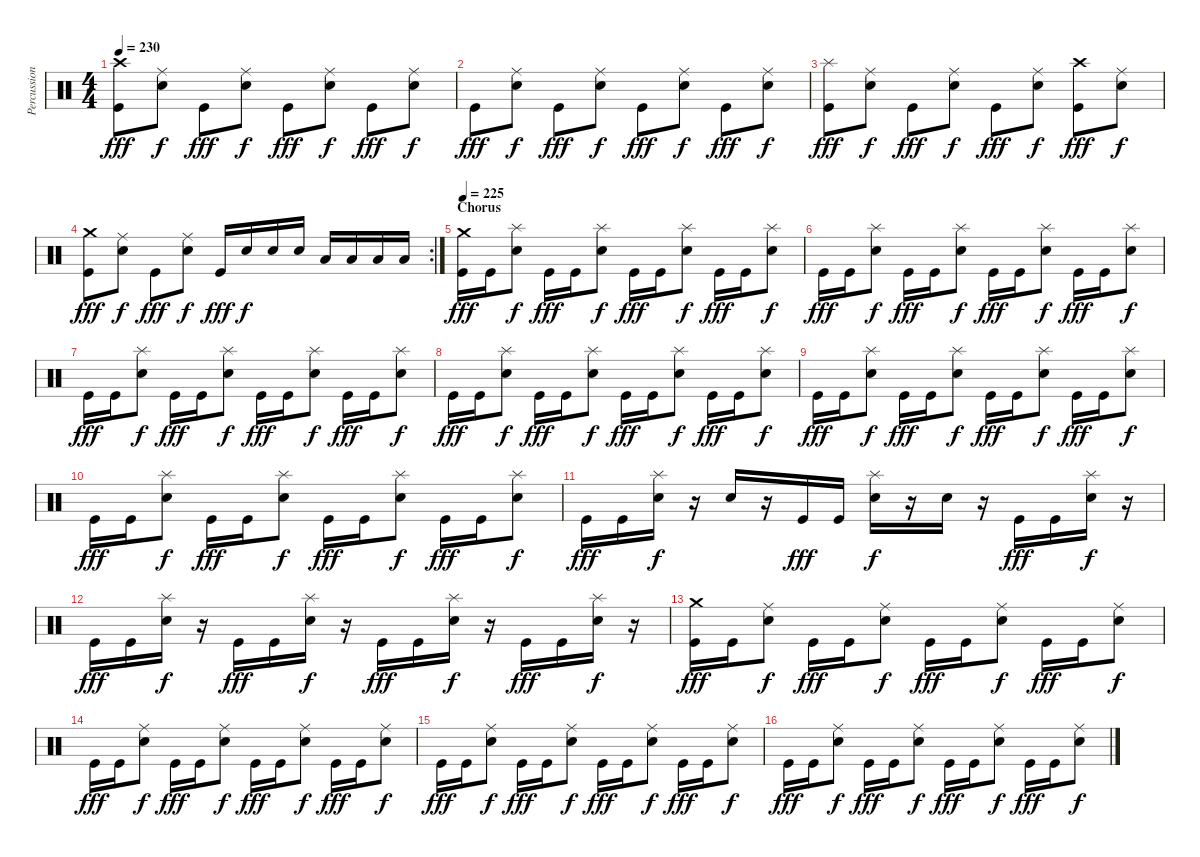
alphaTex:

\track ("Percussion" "Percussion") {instrument percussion}
\staff {score}
\articulation defaults
\ts (4 4)
\tempo 230
\clef neutral
\ks c
("Crash high (hit)" "Kick (hit)").8{dy fff} ("Ride (middle)" "Electric Snare (hit)").8{dy f} "Kick (hit)".8{dy fff} ("Ride (middle)" "Electric Snare (hit)").8{dy f} "Kick (hit)".8{dy fff} ("Ride (middle)" "Electric Snare (hit)").8{dy f} "Kick (hit)".8{dy fff} ("Ride (middle)" "Electric Snare (hit)").8{dy f} |
"Kick (hit)".8{dy fff} ("Ride (middle)" "Electric Snare (hit)").8{dy f} "Kick (hit)".8{dy fff} ("Ride (middle)" "Electric Snare (hit)").8{dy f} "Kick (hit)".8{dy fff} ("Ride (middle)" "Electric Snare (hit)").8{dy f} "Kick (hit)".8{dy fff} ("Ride (middle)" "Electric Snare (hit)").8{dy f} |
("Splash (hit)" "Kick (hit)").8{dy fff} ("Ride (middle)" "Electric Snare (hit)").8{dy f} "Kick (hit)".8{dy fff} ("Ride (middle)" "Electric Snare (hit)").8{dy f} "Kick (hit)".8{dy fff} ("Ride (middle)" "Electric Snare (hit)").8{dy f} ("Crash high (hit)" "Kick (hit)").8{dy fff} ("Ride (middle)" "Electric Snare (hit)").8{dy f} |
\rc 2
("Crash medium (hit)" "Kick (hit)").8{dy fff} ("Ride (middle)" "Electric Snare (hit)").8{dy f} "Kick (hit)".8{dy fff} ("Ride (middle)" "Electric Snare (hit)").8{dy f} "Kick (hit)".16{dy fff} "Electric Snare (hit)".16{dy f} "Electric Snare (hit)".16 "Electric Snare (hit)".16 "Low Tom (hit)".16 "Low Tom (hit)".16 "Low Tom (hit)".16 "Low Tom (hit)".16 |
\section ("" "Chorus")
\tempo 225
("Crash medium (hit)" "Kick (hit)").16{dy fff} "Kick (hit)".16 ("Splash (hit)" "Electric Snare (hit)").8{dy f} "Kick (hit)".16{dy fff} "Kick (hit)".16 ("Splash (hit)" "Electric Snare (hit)").8{dy f} "Kick (hit)".16{dy fff} "Kick (hit)".16 ("Splash (hit)" "Electric Snare (hit)").8{dy f} "Kick (hit)".16{dy fff} "Kick (hit)".16 ("Splash (hit)" "Electric Snare (hit)").8{dy f} |
"Kick (hit)".16{dy fff} "Kick (hit)".16 ("Splash (hit)" "Electric Snare (hit)").8{dy f} "Kick (hit)".16{dy fff} "Kick (hit)".16 ("Splash (hit)" "Electric Snare (hit)").8{dy f} "Kick (hit)".16{dy fff} "Kick (hit)".16 ("Splash (hit)" "Electric Snare (hit)").8{dy f} "Kick (hit)".16{dy fff} "Kick (hit)".16 ("Splash (hit)" "Electric Snare (hit)").8{dy f} |
"Kick (hit)".16{dy fff} "Kick (hit)".16 ("Splash (hit)" "Electric Snare (hit)").8{dy f} "Kick (hit)".16{dy fff} "Kick (hit)".16 ("Splash (hit)" "Electric Snare (hit)").8{dy f} "Kick (hit)".16{dy fff} "Kick (hit)".16 ("Splash (hit)" "Electric Snare (hit)").8{dy f} "Kick (hit)".16{dy fff} "Kick (hit)".16 ("Splash (hit)" "Electric Snare (hit)").8{dy f} |
"Kick (hit)".16{dy fff} "Kick (hit)".16 ("Splash (hit)" "Electric Snare (hit)").8{dy f} "Kick (hit)".16{dy fff} "Kick (hit)".16 ("Splash (hit)" "Electric Snare (hit)").8{dy f} "Kick (hit)".16{dy fff} "Kick (hit)".16 ("Splash (hit)" "Electric Snare (hit)").8{dy f} "Kick (hit)".16{dy fff} "Kick (hit)".16 ("Splash (hit)" "Electric Snare (hit)").8{dy f} |
"Kick (hit)".16{dy fff} "Kick (hit)".16 ("Splash (hit)" "Electric Snare (hit)").8{dy f} "Kick (hit)".16{dy fff} "Kick (hit)".16 ("Splash (hit)" "Electric Snare (hit)").8{dy f} "Kick (hit)".16{dy fff} "Kick (hit)".16 ("Splash (hit)" "Electric Snare (hit)").8{dy f} "Kick (hit)".16{dy fff} "Kick (hit)".16 ("Splash (hit)" "Electric Snare (hit)").8{dy f} |
"Kick (hit)".16{dy fff} "Kick (hit)".16 ("Splash (hit)" "Electric Snare (hit)").8{dy f} "Kick (hit)".16{dy fff} "Kick (hit)".16 ("Splash (hit)" "Electric Snare (hit)").8{dy f} "Kick (hit)".16{dy fff} "Kick (hit)".16 ("Splash (hit)" "Electric Snare (hit)").8{dy f} "Kick (hit)".16{dy fff} "Kick (hit)".16 ("Splash (hit)" "Electric Snare (hit)").8{dy f} |
"Kick (hit)".16{dy fff} "Kick (hit)".16 ("Splash (hit)" "Electric Snare (hit)").16{dy f} r.16 "Electric Snare (hit)".16 r.16 "Kick (hit)".16{dy fff} "Kick (hit)".16 ("Splash (hit)" "Electric Snare (hit)").16{dy f} r.16 "Electric Snare (hit)".16 r.16 "Kick (hit)".16{dy fff} "Kick (hit)".16 ("Splash (hit)" "Electric Snare (hit)").16{dy f} r.16 |
"Kick (hit)".16{dy fff} "Kick (hit)".16 ("Splash (hit)" "Electric Snare (hit)").16{dy f} r.16 "Kick (hit)".16{dy fff} "Kick (hit)".16 ("Splash (hit)" "Electric Snare (hit)").16{dy f} r.16 "Kick (hit)".16{dy fff} "Kick (hit)".16 ("Splash (hit)" "Electric Snare (hit)").16{dy f} r.16 "Kick (hit)".16{dy fff} "Kick (hit)".16 ("Splash (hit)" "Electric Snare (hit)").16{dy f} r.16 |
("Crash medium (hit)" "Kick (hit)").16{dy fff} "Kick (hit)".16 ("Ride (middle)" "Electric Snare (hit)").8{dy f} "Kick (hit)".16{dy fff} "Kick (hit)".16 ("Ride (middle)" "Electric Snare (hit)").8{dy f} "Kick (hit)".16{dy fff} "Kick (hit)".16 ("Ride (middle)" "Electric Snare (hit)").8{dy f} "Kick (hit)".16{dy fff} "Kick (hit)".16 ("Ride (middle)" "Electric Snare (hit)").8{dy f} |
"Kick (hit)".16{dy fff} "Kick (hit)".16 ("Ride (middle)" "Electric Snare (hit)").8{dy f} "Kick (hit)".16{dy fff} "Kick (hit)".16 ("Ride (middle)" "Electric Snare (hit)").8{dy f} "Kick (hit)".16{dy fff} "Kick (hit)".16 ("Ride (middle)" "Electric Snare (hit)").8{dy f} "Kick (hit)".16{dy fff} "Kick (hit)".16 ("Ride (middle)" "Electric Snare (hit)").8{dy f} |
"Kick (hit)".16{dy fff} "Kick (hit)".16 ("Ride (middle)" "Electric Snare (hit)").8{dy f} "Kick (hit)".16{dy fff} "Kick (hit)".16 ("Ride (middle)" "Electric Snare (hit)").8{dy f} "Kick (hit)".16{dy fff} "Kick (hit)".16 ("Ride (middle)" "Electric Snare (hit)").8{dy f} "Kick (hit)".16{dy fff} "Kick (hit)".16 ("Ride (middle)" "Electric Snare (hit)").8{dy f} |
"Kick (hit)".16{dy fff} "Kick (hit)".16 ("Ride (middle)" "Electric Snare (hit)").8{dy f} "Kick (hit)".16{dy fff} "Kick (hit)".16 ("Ride (middle)" "Electric Snare (hit)").8{dy f} "Kick (hit)".16{dy fff} "Kick (hit)".16 ("Ride (middle)" "Electric Snare (hit)").8{dy f} "Kick (hit)".16{dy fff} "Kick (hit)".16 ("Ride (middle)" "Electric Snare (hit)").8{dy f}
